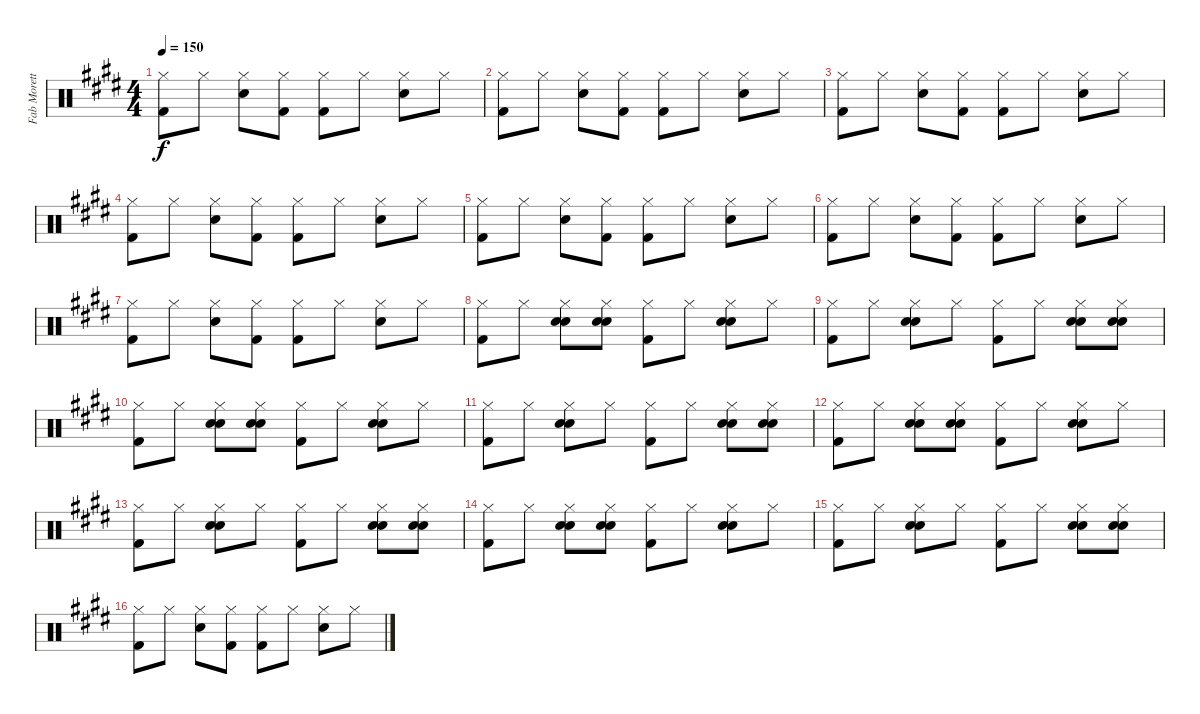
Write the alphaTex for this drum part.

\track ("Fab Moretti - Drums" "Fab Morett") {instrument percussion}
\staff {score}
\articulation defaults
\ts (4 4)
\tempo 150
\clef neutral
\ks e
("Hi-Hat (closed)" "Kick (hit) 2").8{dy f} "Hi-Hat (closed)".8 ("Hi-Hat (closed)" "Snare (hit) 2").8 ("Hi-Hat (closed)" "Kick (hit) 2").8 ("Hi-Hat (closed)" "Kick (hit) 2").8 "Hi-Hat (closed)".8 ("Hi-Hat (closed)" "Snare (hit) 2").8 "Hi-Hat (closed)".8 |
("Hi-Hat (closed)" "Kick (hit) 2").8 "Hi-Hat (closed)".8 ("Hi-Hat (closed)" "Snare (hit) 2").8 ("Hi-Hat (closed)" "Kick (hit) 2").8 ("Hi-Hat (closed)" "Kick (hit) 2").8 "Hi-Hat (closed)".8 ("Hi-Hat (closed)" "Snare (hit) 2").8 "Hi-Hat (closed)".8 |
("Hi-Hat (closed)" "Kick (hit) 2").8 "Hi-Hat (closed)".8 ("Hi-Hat (closed)" "Snare (hit) 2").8 ("Hi-Hat (closed)" "Kick (hit) 2").8 ("Hi-Hat (closed)" "Kick (hit) 2").8 "Hi-Hat (closed)".8 ("Hi-Hat (closed)" "Snare (hit) 2").8 "Hi-Hat (closed)".8 |
("Hi-Hat (closed)" "Kick (hit) 2").8 "Hi-Hat (closed)".8 ("Hi-Hat (closed)" "Snare (hit) 2").8 ("Hi-Hat (closed)" "Kick (hit) 2").8 ("Hi-Hat (closed)" "Kick (hit) 2").8 "Hi-Hat (closed)".8 ("Hi-Hat (closed)" "Snare (hit) 2").8 "Hi-Hat (closed)".8 |
("Hi-Hat (closed)" "Kick (hit) 2").8 "Hi-Hat (closed)".8 ("Hi-Hat (closed)" "Snare (hit) 2").8 ("Hi-Hat (closed)" "Kick (hit) 2").8 ("Hi-Hat (closed)" "Kick (hit) 2").8 "Hi-Hat (closed)".8 ("Hi-Hat (closed)" "Snare (hit) 2").8 "Hi-Hat (closed)".8 |
("Hi-Hat (closed)" "Kick (hit) 2").8 "Hi-Hat (closed)".8 ("Hi-Hat (closed)" "Snare (hit) 2").8 ("Hi-Hat (closed)" "Kick (hit) 2").8 ("Hi-Hat (closed)" "Kick (hit) 2").8 "Hi-Hat (closed)".8 ("Hi-Hat (closed)" "Snare (hit) 2").8 "Hi-Hat (closed)".8 |
("Hi-Hat (closed)" "Kick (hit) 2").8 "Hi-Hat (closed)".8 ("Hi-Hat (closed)" "Snare (hit) 2").8 ("Hi-Hat (closed)" "Kick (hit) 2").8 ("Hi-Hat (closed)" "Kick (hit) 2").8 "Hi-Hat (closed)".8 ("Hi-Hat (closed)" "Snare (hit) 2").8 "Hi-Hat (closed)".8 |
("Hi-Hat (closed)" "Kick (hit) 2").8 "Hi-Hat (closed)".8 ("Hi-Hat (closed)" "Hand Clap (hit)" "Snare (hit) 2").8 ("Hi-Hat (closed)" "Hand Clap (hit)" "Snare (hit) 2").8 ("Hi-Hat (closed)" "Kick (hit) 2").8 "Hi-Hat (closed)".8 ("Hi-Hat (closed)" "Hand Clap (hit)" "Snare (hit) 2").8 "Hi-Hat (closed)".8 |
("Hi-Hat (closed)" "Kick (hit) 2").8 "Hi-Hat (closed)".8 ("Hi-Hat (closed)" "Hand Clap (hit)" "Snare (hit) 2").8 "Hi-Hat (closed)".8 ("Hi-Hat (closed)" "Kick (hit) 2").8 "Hi-Hat (closed)".8 ("Hi-Hat (closed)" "Hand Clap (hit)" "Snare (hit) 2").8 ("Hi-Hat (closed)" "Hand Clap (hit)" "Snare (hit) 2").8 |
("Hi-Hat (closed)" "Kick (hit) 2").8 "Hi-Hat (closed)".8 ("Hi-Hat (closed)" "Hand Clap (hit)" "Snare (hit) 2").8 ("Hi-Hat (closed)" "Hand Clap (hit)" "Snare (hit) 2").8 ("Hi-Hat (closed)" "Kick (hit) 2").8 "Hi-Hat (closed)".8 ("Hi-Hat (closed)" "Hand Clap (hit)" "Snare (hit) 2").8 "Hi-Hat (closed)".8 |
("Hi-Hat (closed)" "Kick (hit) 2").8 "Hi-Hat (closed)".8 ("Hi-Hat (closed)" "Hand Clap (hit)" "Snare (hit) 2").8 "Hi-Hat (closed)".8 ("Hi-Hat (closed)" "Kick (hit) 2").8 "Hi-Hat (closed)".8 ("Hi-Hat (closed)" "Hand Clap (hit)" "Snare (hit) 2").8 ("Hi-Hat (closed)" "Hand Clap (hit)" "Snare (hit) 2").8 |
("Hi-Hat (closed)" "Kick (hit) 2").8 "Hi-Hat (closed)".8 ("Hi-Hat (closed)" "Hand Clap (hit)" "Snare (hit) 2").8 ("Hi-Hat (closed)" "Hand Clap (hit)" "Snare (hit) 2").8 ("Hi-Hat (closed)" "Kick (hit) 2").8 "Hi-Hat (closed)".8 ("Hi-Hat (closed)" "Hand Clap (hit)" "Snare (hit) 2").8 "Hi-Hat (closed)".8 |
("Hi-Hat (closed)" "Kick (hit) 2").8 "Hi-Hat (closed)".8 ("Hi-Hat (closed)" "Hand Clap (hit)" "Snare (hit) 2").8 "Hi-Hat (closed)".8 ("Hi-Hat (closed)" "Kick (hit) 2").8 "Hi-Hat (closed)".8 ("Hi-Hat (closed)" "Hand Clap (hit)" "Snare (hit) 2").8 ("Hi-Hat (closed)" "Hand Clap (hit)" "Snare (hit) 2").8 |
("Hi-Hat (closed)" "Kick (hit) 2").8 "Hi-Hat (closed)".8 ("Hi-Hat (closed)" "Hand Clap (hit)" "Snare (hit) 2").8 ("Hi-Hat (closed)" "Hand Clap (hit)" "Snare (hit) 2").8 ("Hi-Hat (closed)" "Kick (hit) 2").8 "Hi-Hat (closed)".8 ("Hi-Hat (closed)" "Hand Clap (hit)" "Snare (hit) 2").8 "Hi-Hat (closed)".8 |
("Hi-Hat (closed)" "Kick (hit) 2").8 "Hi-Hat (closed)".8 ("Hi-Hat (closed)" "Hand Clap (hit)" "Snare (hit) 2").8 "Hi-Hat (closed)".8 ("Hi-Hat (closed)" "Kick (hit) 2").8 "Hi-Hat (closed)".8 ("Hi-Hat (closed)" "Hand Clap (hit)" "Snare (hit) 2").8 ("Hi-Hat (closed)" "Hand Clap (hit)" "Snare (hit) 2").8 |
("Hi-Hat (closed)" "Kick (hit) 2").8 "Hi-Hat (closed)".8 ("Hi-Hat (closed)" "Snare (hit) 2").8 ("Hi-Hat (closed)" "Kick (hit) 2").8 ("Hi-Hat (closed)" "Kick (hit) 2").8 "Hi-Hat (closed)".8 ("Hi-Hat (closed)" "Snare (hit) 2").8 "Hi-Hat (closed)".8
